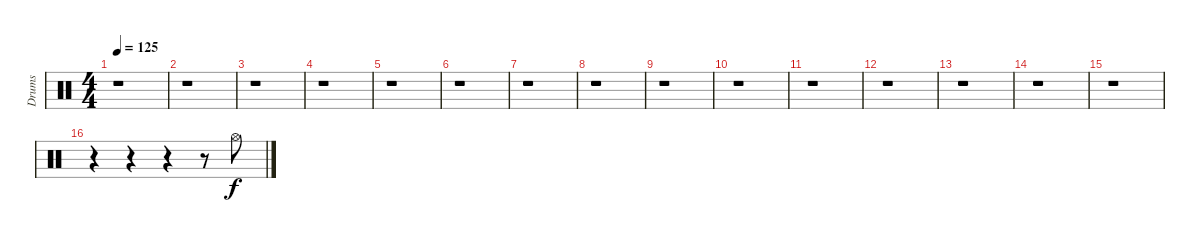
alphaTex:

\track ("Drums" "Drums") {instrument percussion}
\staff {score}
\articulation defaults
\ts (4 4)
\tempo 125
\clef neutral
\ks c
r.1{dy f} |
r.1 |
r.1 |
r.1 |
r.1 |
r.1 |
r.1 |
r.1 |
r.1 |
r.1 |
r.1 |
\section ("" "")
r.1 |
r.1 |
r.1 |
r.1 |
r.4 r.4 r.4 r.8 "Hi-Hat (open)".8
